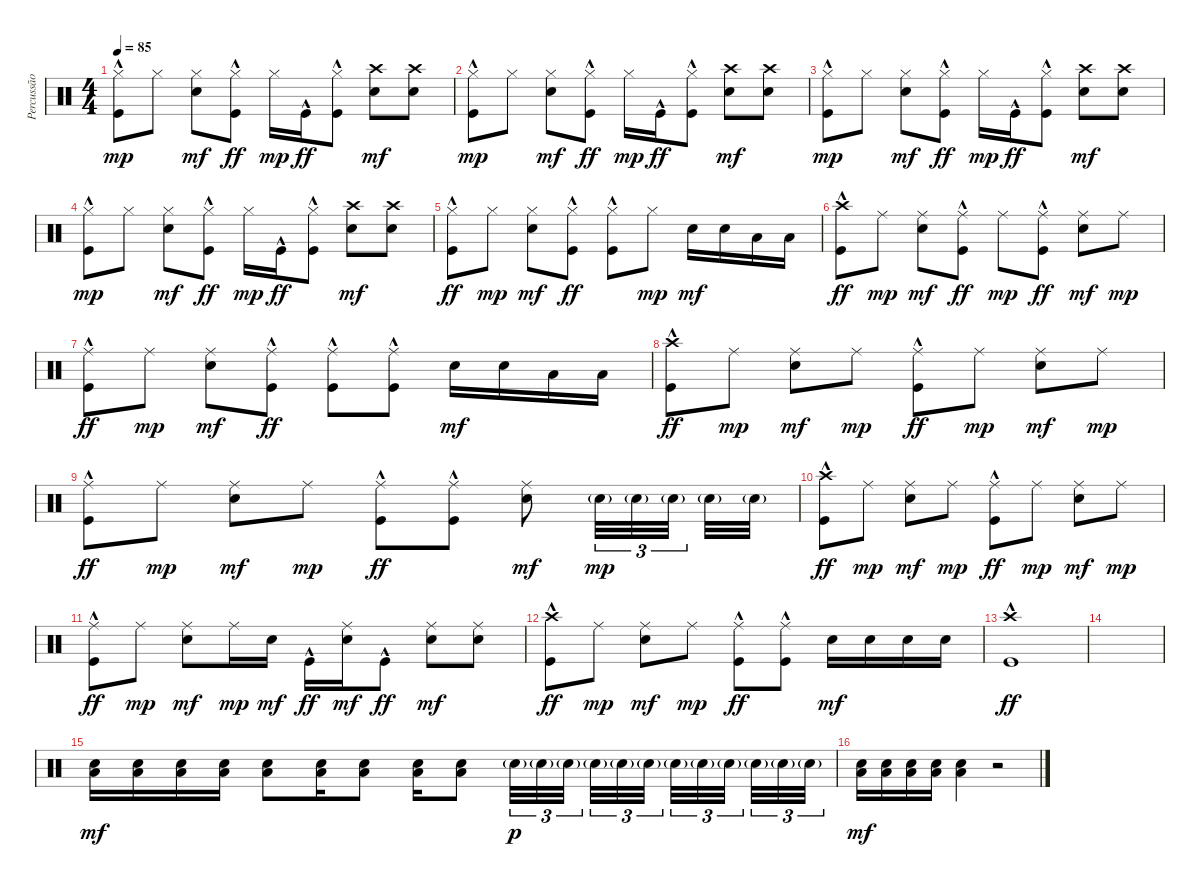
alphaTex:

\track ("Percussão" "Percussão") {instrument percussion}
\staff {score}
\articulation defaults
\ts (4 4)
\tempo 85
\clef neutral
\ks c
("Hi-Hat (closed)" "Kick (hit)"{hac}).8{dy mp} "Hi-Hat (closed)".8 ("Hi-Hat (closed)" "Snare (hit) 2").8{dy mf} ("Hi-Hat (closed)" "Kick (hit)"{hac}).8{dy ff} "Hi-Hat (closed)".16{dy mp} "Kick (hit)"{hac}.16{dy ff} ("Hi-Hat (closed)" "Kick (hit)"{hac}).8 ("Crash high (hit)" "Snare (hit) 2").8{dy mf} ("Crash high (hit)" "Snare (hit) 2").8 |
("Hi-Hat (closed)" "Kick (hit)"{hac}).8{dy mp} "Hi-Hat (closed)".8 ("Hi-Hat (closed)" "Snare (hit) 2").8{dy mf} ("Hi-Hat (closed)" "Kick (hit)"{hac}).8{dy ff} "Hi-Hat (closed)".16{dy mp} "Kick (hit)"{hac}.16{dy ff} ("Hi-Hat (closed)" "Kick (hit)"{hac}).8 ("Crash high (hit)" "Snare (hit) 2").8{dy mf} ("Crash high (hit)" "Snare (hit) 2").8 |
("Hi-Hat (closed)" "Kick (hit)"{hac}).8{dy mp} "Hi-Hat (closed)".8 ("Hi-Hat (closed)" "Snare (hit) 2").8{dy mf} ("Hi-Hat (closed)" "Kick (hit)"{hac}).8{dy ff} "Hi-Hat (closed)".16{dy mp} "Kick (hit)"{hac}.16{dy ff} ("Hi-Hat (closed)" "Kick (hit)"{hac}).8 ("Crash high (hit)" "Snare (hit) 2").8{dy mf} ("Crash high (hit)" "Snare (hit) 2").8 |
("Hi-Hat (closed)" "Kick (hit)"{hac}).8{dy mp} "Hi-Hat (closed)".8 ("Hi-Hat (closed)" "Snare (hit) 2").8{dy mf} ("Hi-Hat (closed)" "Kick (hit)"{hac}).8{dy ff} "Hi-Hat (closed)".16{dy mp} "Kick (hit)"{hac}.16{dy ff} ("Hi-Hat (closed)" "Kick (hit)"{hac}).8 ("Crash high (hit)" "Snare (hit) 2").8{dy mf} ("Crash high (hit)" "Snare (hit) 2").8 |
("Hi-Hat (closed)" "Kick (hit)"{hac}).8{dy ff} "Hi-Hat (closed)".8{dy mp} ("Hi-Hat (closed)" "Snare (hit) 2").8{dy mf} ("Hi-Hat (closed)" "Kick (hit)"{hac}).8{dy ff} ("Hi-Hat (closed)" "Kick (hit)"{hac}).8 "Hi-Hat (closed)".8{dy mp} "Snare (hit) 2".16{dy mf} "Snare (hit) 2".16 "Low Tom (hit)".16 "Low Tom (hit)".16 |
("Crash high (hit)" "Kick (hit)"{hac}).8{dy ff} "Ride (middle)".8{dy mp} ("Ride (middle)" "Snare (hit) 2").8{dy mf} ("Ride (middle)" "Kick (hit)"{hac}).8{dy ff} "Ride (middle)".8{dy mp} ("Ride (middle)" "Kick (hit)"{hac}).8{dy ff} ("Ride (middle)" "Snare (hit) 2").8{dy mf} "Ride (middle)".8{dy mp} |
("Ride (middle)" "Kick (hit)"{hac}).8{dy ff} "Ride (middle)".8{dy mp} ("Ride (middle)" "Snare (hit) 2").8{dy mf} ("Ride (middle)" "Kick (hit)"{hac}).8{dy ff} ("Ride (middle)" "Kick (hit)"{hac}).8 ("Ride (middle)" "Kick (hit)"{hac}).8 "Snare (hit) 2".16{dy mf} "Snare (hit) 2".16 "Low Tom (hit)".16 "Low Tom (hit)".16 |
("Crash high (hit)" "Kick (hit)"{hac}).8{dy ff} "Ride (middle)".8{dy mp} ("Ride (middle)" "Snare (hit) 2").8{dy mf} "Ride (middle)".8{dy mp} ("Ride (middle)" "Kick (hit)"{hac}).8{dy ff} "Ride (middle)".8{dy mp} ("Ride (middle)" "Snare (hit) 2").8{dy mf} "Ride (middle)".8{dy mp} |
("Ride (middle)" "Kick (hit)"{hac}).8{dy ff} "Ride (middle)".8{dy mp} ("Ride (middle)" "Snare (hit) 2").8{dy mf} "Ride (middle)".8{dy mp} ("Ride (middle)" "Kick (hit)"{hac}).8{dy ff} ("Ride (middle)" "Kick (hit)"{hac}).8 ("Ride (middle)" "Snare (hit) 2").8{dy mf} "Snare (hit) 2"{g}.32{tu (3 2) dy mp} "Snare (hit) 2"{g}.32{tu (3 2)} "Snare (hit) 2"{g}.32{tu (3 2) beam splitsecondary} "Snare (hit) 2"{g}.32 "Snare (hit) 2"{g}.32 |
("Crash high (hit)" "Kick (hit)"{hac}).8{dy ff} "Ride (middle)".8{dy mp} ("Ride (middle)" "Snare (hit) 2").8{dy mf} "Ride (middle)".8{dy mp} ("Ride (middle)" "Kick (hit)"{hac}).8{dy ff} "Ride (middle)".8{dy mp} ("Ride (middle)" "Snare (hit) 2").8{dy mf} "Ride (middle)".8{dy mp} |
("Ride (middle)" "Kick (hit)"{hac}).8{dy ff} "Ride (middle)".8{dy mp} ("Ride (middle)" "Snare (hit) 2").8{dy mf} "Ride (middle)".16{dy mp} "Snare (hit) 2".16{dy mf} "Kick (hit)"{hac}.16{dy ff} ("Ride (middle)" "Snare (hit) 2").16{dy mf} "Kick (hit)"{hac}.8{dy ff} ("Ride (middle)" "Snare (hit) 2").8{dy mf} ("Ride (middle)" "Snare (hit) 2").8 |
("Crash high (hit)" "Kick (hit)"{hac}).8{dy ff} "Ride (middle)".8{dy mp} ("Ride (middle)" "Snare (hit) 2").8{dy mf} "Ride (middle)".8{dy mp} ("Ride (middle)" "Kick (hit)"{hac}).8{dy ff} ("Ride (middle)" "Kick (hit)"{hac}).8 "Snare (hit) 2".16{dy mf} "Snare (hit) 2".16 "Snare (hit) 2".16 "Snare (hit) 2".16 |
("Crash high (hit)" "Kick (hit)"{hac}).1{dy ff} |
|
("Snare (hit) 2" "Low Floor Tom (hit)").16{dy mf} ("Snare (hit) 2" "Low Floor Tom (hit)").16 ("Snare (hit) 2" "Low Floor Tom (hit)").16 ("Snare (hit) 2" "Low Floor Tom (hit)").16 ("Snare (hit) 2" "Low Floor Tom (hit)").8 ("Snare (hit) 2" "Low Floor Tom (hit)").16 ("Snare (hit) 2" "Low Floor Tom (hit)").8 ("Snare (hit) 2" "Low Floor Tom (hit)").16 ("Snare (hit) 2" "Low Floor Tom (hit)").8 "Snare (hit) 2"{g}.32{tu (3 2) dy p} "Snare (hit) 2"{g}.32{tu (3 2)} "Snare (hit) 2"{g}.32{tu (3 2) beam splitsecondary} "Snare (hit) 2"{g}.32{tu (3 2)} "Snare (hit) 2"{g}.32{tu (3 2)} "Snare (hit) 2"{g}.32{tu (3 2) beam splitsecondary} "Snare (hit) 2"{g}.32{tu (3 2)} "Snare (hit) 2"{g}.32{tu (3 2)} "Snare (hit) 2"{g}.32{tu (3 2) beam splitsecondary} "Snare (hit) 2"{g}.32{tu (3 2)} "Snare (hit) 2"{g}.32{tu (3 2)} "Snare (hit) 2"{g}.32{tu (3 2)} |
("Snare (hit) 2" "Low Floor Tom (hit)").16{dy mf} ("Snare (hit) 2" "Low Floor Tom (hit)").16 ("Snare (hit) 2" "Low Floor Tom (hit)").16 ("Snare (hit) 2" "Low Floor Tom (hit)").16 ("Snare (hit) 2" "Low Floor Tom (hit)").4 r.2
